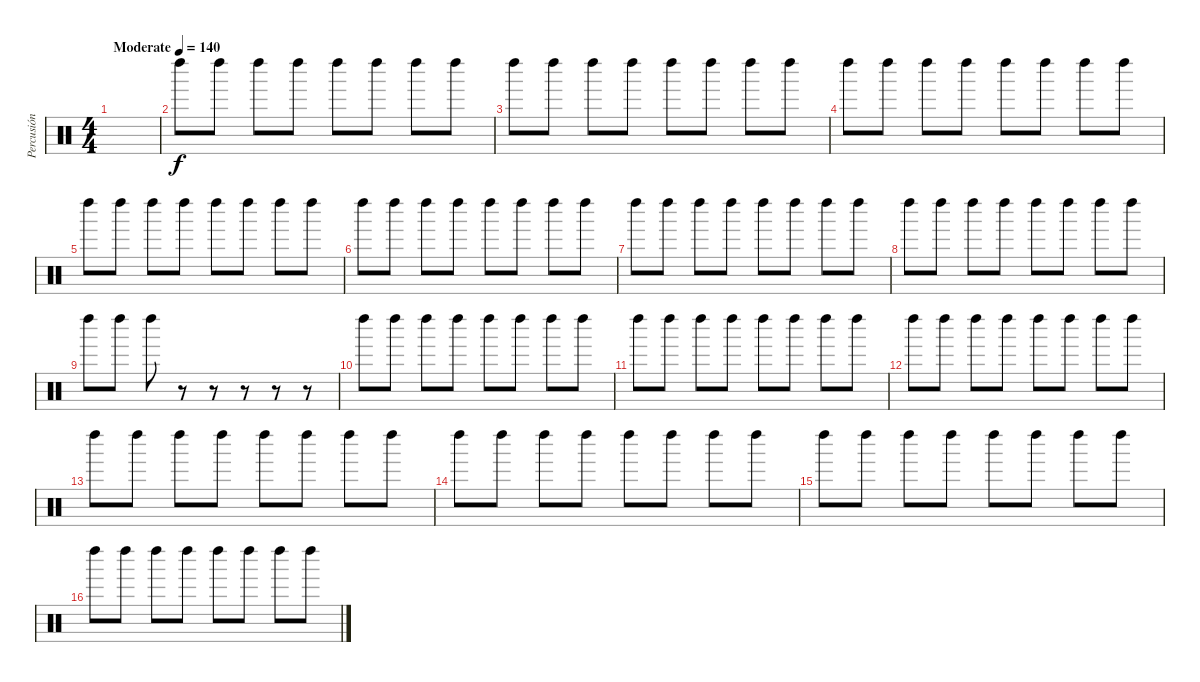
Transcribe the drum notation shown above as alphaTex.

\track ("Percusión" "Percusión") {instrument percussion}
\staff {score}
\articulation defaults
\ts (4 4)
\tempo (140 "Moderate")
\clef neutral
\ks c
|
"Left Maraca (hit)".8 "Left Maraca (hit)".8 "Left Maraca (hit)".8 "Left Maraca (hit)".8 "Left Maraca (hit)".8 "Left Maraca (hit)".8 "Left Maraca (hit)".8 "Left Maraca (hit)".8 |
"Left Maraca (hit)".8 "Left Maraca (hit)".8 "Left Maraca (hit)".8 "Left Maraca (hit)".8 "Left Maraca (hit)".8 "Left Maraca (hit)".8 "Left Maraca (hit)".8 "Left Maraca (hit)".8 |
"Left Maraca (hit)".8 "Left Maraca (hit)".8 "Left Maraca (hit)".8 "Left Maraca (hit)".8 "Left Maraca (hit)".8 "Left Maraca (hit)".8 "Left Maraca (hit)".8 "Left Maraca (hit)".8 |
"Left Maraca (hit)".8 "Left Maraca (hit)".8 "Left Maraca (hit)".8 "Left Maraca (hit)".8 "Left Maraca (hit)".8 "Left Maraca (hit)".8 "Left Maraca (hit)".8 "Left Maraca (hit)".8 |
"Left Maraca (hit)".8 "Left Maraca (hit)".8 "Left Maraca (hit)".8 "Left Maraca (hit)".8 "Left Maraca (hit)".8 "Left Maraca (hit)".8 "Left Maraca (hit)".8 "Left Maraca (hit)".8 |
"Left Maraca (hit)".8 "Left Maraca (hit)".8 "Left Maraca (hit)".8 "Left Maraca (hit)".8 "Left Maraca (hit)".8 "Left Maraca (hit)".8 "Left Maraca (hit)".8 "Left Maraca (hit)".8 |
"Left Maraca (hit)".8 "Left Maraca (hit)".8 "Left Maraca (hit)".8 "Left Maraca (hit)".8 "Left Maraca (hit)".8 "Left Maraca (hit)".8 "Left Maraca (hit)".8 "Left Maraca (hit)".8 |
"Left Maraca (hit)".8 "Left Maraca (hit)".8 "Left Maraca (hit)".8 r.8 r.8 r.8 r.8 r.8 |
"Left Maraca (hit)".8 "Left Maraca (hit)".8 "Left Maraca (hit)".8 "Left Maraca (hit)".8 "Left Maraca (hit)".8 "Left Maraca (hit)".8 "Left Maraca (hit)".8 "Left Maraca (hit)".8 |
"Left Maraca (hit)".8 "Left Maraca (hit)".8 "Left Maraca (hit)".8 "Left Maraca (hit)".8 "Left Maraca (hit)".8 "Left Maraca (hit)".8 "Left Maraca (hit)".8 "Left Maraca (hit)".8 |
"Left Maraca (hit)".8 "Left Maraca (hit)".8 "Left Maraca (hit)".8 "Left Maraca (hit)".8 "Left Maraca (hit)".8 "Left Maraca (hit)".8 "Left Maraca (hit)".8 "Left Maraca (hit)".8 |
"Left Maraca (hit)".8 "Left Maraca (hit)".8 "Left Maraca (hit)".8 "Left Maraca (hit)".8 "Left Maraca (hit)".8 "Left Maraca (hit)".8 "Left Maraca (hit)".8 "Left Maraca (hit)".8 |
"Left Maraca (hit)".8 "Left Maraca (hit)".8 "Left Maraca (hit)".8 "Left Maraca (hit)".8 "Left Maraca (hit)".8 "Left Maraca (hit)".8 "Left Maraca (hit)".8 "Left Maraca (hit)".8 |
"Left Maraca (hit)".8 "Left Maraca (hit)".8 "Left Maraca (hit)".8 "Left Maraca (hit)".8 "Left Maraca (hit)".8 "Left Maraca (hit)".8 "Left Maraca (hit)".8 "Left Maraca (hit)".8 |
"Left Maraca (hit)".8 "Left Maraca (hit)".8 "Left Maraca (hit)".8 "Left Maraca (hit)".8 "Left Maraca (hit)".8 "Left Maraca (hit)".8 "Left Maraca (hit)".8 "Left Maraca (hit)".8
